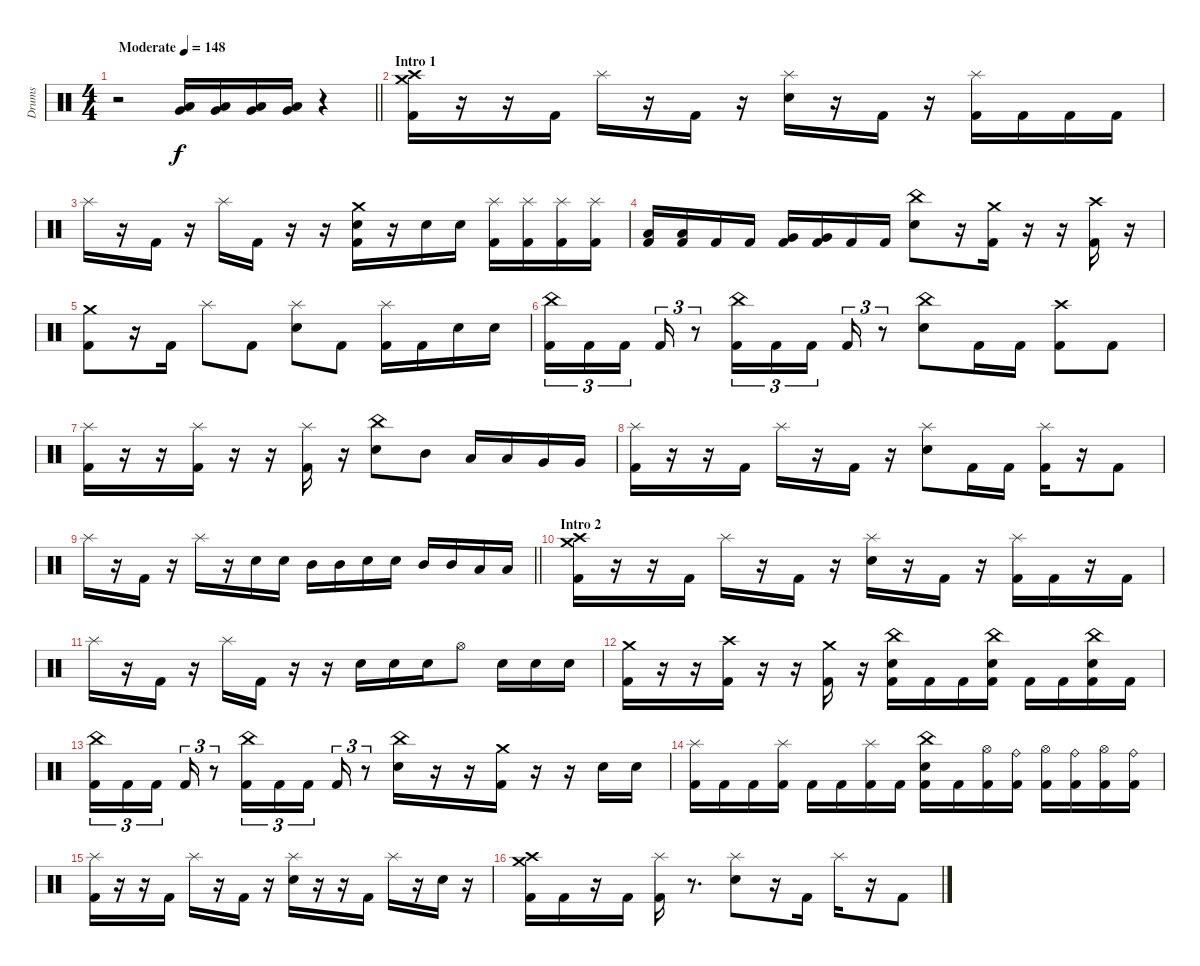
\track ("Drums" "Drums") {instrument percussion}
\staff {score}
\articulation defaults
\ts (4 4)
\tempo (148 "Moderate")
\clef neutral
\barLineRight lightlight
\ks c
r.2{dy f} ("Low Floor Tom (hit)" "Very Low Tom (hit)").16 ("Low Floor Tom (hit)" "Very Low Tom (hit)").16 ("Low Floor Tom (hit)" "Very Low Tom (hit)").16 ("Low Floor Tom (hit)" "Very Low Tom (hit)").16 r.4 |
\section ("" "Intro 1")
("Crash medium (hit)" "Crash high (hit)" "Kick (hit) 2").16 r.16 r.16 "Kick (hit) 2".16 "Splash (hit)".16 r.16 "Kick (hit) 2".16 r.16 ("Splash (hit)" "Electric Snare (hit)").16 r.16 "Kick (hit) 2".16 r.16 ("Splash (hit)" "Kick (hit) 2").16 "Kick (hit) 2".16 "Kick (hit) 2".16 "Kick (hit) 2".16 |
"Splash (hit)".16 r.16 "Kick (hit) 2".16 r.16 "Splash (hit)".16 "Kick (hit) 2".16 r.16 r.16 ("Crash medium (hit)" "Electric Snare (hit)" "Kick (hit) 2").16 r.16 "Electric Snare (hit)".16 "Electric Snare (hit)".16 ("Splash (hit)" "Kick (hit) 2").16 ("Splash (hit)" "Kick (hit) 2").16 ("Splash (hit)" "Kick (hit) 2").16 ("Splash (hit)" "Kick (hit) 2").16 |
("Low Tom (hit)" "Kick (hit) 2").16 ("Low Tom (hit)" "Kick (hit) 2").16 "Kick (hit) 2".16 "Kick (hit) 2".16 ("Very Low Tom (hit)" "Kick (hit) 2").16 ("Very Low Tom (hit)" "Kick (hit) 2").16 "Kick (hit) 2".16 "Kick (hit) 2".16 ("China (hit)" "Electric Snare (hit)").8 r.16 ("Crash medium (hit)" "Kick (hit) 2").16 r.16 r.16 ("Crash high (hit)" "Kick (hit) 2").16 r.16 |
("Crash medium (hit)" "Kick (hit) 2").8 r.16 "Kick (hit) 2".16 "Splash (hit)".8 "Kick (hit) 2".8 ("Splash (hit)" "Electric Snare (hit)").8 "Kick (hit) 2".8 ("Splash (hit)" "Kick (hit) 2").16 "Kick (hit) 2".16 "Electric Snare (hit)".16 "Electric Snare (hit)".16 |
("China (hit)" "Kick (hit) 2").16{tu (3 2)} "Kick (hit) 2".16{tu (3 2)} "Kick (hit) 2".16{tu (3 2) beam splitsecondary} "Kick (hit) 2".16{tu (3 2)} r.8{tu (3 2)} ("China (hit)" "Kick (hit) 2").16{tu (3 2)} "Kick (hit) 2".16{tu (3 2)} "Kick (hit) 2".16{tu (3 2) beam splitsecondary} "Kick (hit) 2".16{tu (3 2)} r.8{tu (3 2)} ("China (hit)" "Electric Snare (hit)").8 "Kick (hit) 2".16 "Kick (hit) 2".16 ("Crash high (hit)" "Kick (hit) 2").8 "Kick (hit) 2".8 |
("Splash (hit)" "Kick (hit) 2").16 r.16 r.16 ("Splash (hit)" "Kick (hit) 2").16 r.16 r.16 ("Splash (hit)" "Kick (hit) 2").16 r.16 ("China (hit)" "Electric Snare (hit)").8 "Mid Tom (hit)".8 "Low Tom (hit)".16 "Low Tom (hit)".16 "Very Low Tom (hit)".16 "Very Low Tom (hit)".16 |
("Splash (hit)" "Kick (hit) 2").16 r.16 r.16 "Kick (hit) 2".16 "Splash (hit)".16 r.16 "Kick (hit) 2".16 r.16 ("Splash (hit)" "Electric Snare (hit)").8 "Kick (hit) 2".16 "Kick (hit) 2".16 ("Splash (hit)" "Kick (hit) 2").16 r.16 "Kick (hit) 2".8 |
\barLineRight lightlight "Splash (hit)".16
r.16 "Kick (hit) 2".16 r.16 "Splash (hit)".16 r.16 "Electric Snare (hit)".16 "Electric Snare (hit)".16 "Mid Tom (hit)".16 "Mid Tom (hit)".16 "Electric Snare (hit)".16 "Electric Snare (hit)".16 "Mid Tom (hit)".16 "Mid Tom (hit)".16 "Low Tom (hit)".16 "Low Tom (hit)".16 |
\section ("" "Intro 2")
("Crash medium (hit)" "Crash high (hit)" "Kick (hit) 2").16 r.16 r.16 "Kick (hit) 2".16 "Splash (hit)".16 r.16 "Kick (hit) 2".16 r.16 ("Splash (hit)" "Electric Snare (hit)").16 r.16 "Kick (hit) 2".16 r.16 ("Splash (hit)" "Kick (hit) 2").16 "Kick (hit) 2".16 r.16 "Kick (hit) 2".16 |
"Splash (hit)".16 r.16 "Kick (hit) 2".16 r.16 "Splash (hit)".16 "Kick (hit) 2".16 r.16 r.16 "Electric Snare (hit)".16 "Electric Snare (hit)".16 "Electric Snare (hit)".16 "Hi-Hat (open)".8 "Electric Snare (hit)".16 "Electric Snare (hit)".16 "Electric Snare (hit)".16 |
("Crash medium (hit)" "Kick (hit) 2").16 r.16 r.16 ("Crash high (hit)" "Kick (hit) 2").16 r.16 r.16 ("Crash medium (hit)" "Kick (hit) 2").16 r.16 ("China (hit)" "Electric Snare (hit)" "Kick (hit) 2").16 "Kick (hit) 2".16 "Kick (hit) 2".16 ("China (hit)" "Electric Snare (hit)" "Kick (hit) 2").16 "Kick (hit) 2".16 "Kick (hit) 2".16 ("China (hit)" "Electric Snare (hit)" "Kick (hit) 2").16 "Kick (hit) 2".16 |
("China (hit)" "Kick (hit) 2").16{tu (3 2)} "Kick (hit) 2".16{tu (3 2)} "Kick (hit) 2".16{tu (3 2) beam splitsecondary} "Kick (hit) 2".16{tu (3 2)} r.8{tu (3 2)} ("China (hit)" "Kick (hit) 2").16{tu (3 2)} "Kick (hit) 2".16{tu (3 2)} "Kick (hit) 2".16{tu (3 2) beam splitsecondary} "Kick (hit) 2".16{tu (3 2)} r.8{tu (3 2)} ("China (hit)" "Electric Snare (hit)").16 r.16 r.16 ("Crash medium (hit)" "Kick (hit) 2").16 r.16 r.16 "Electric Snare (hit)".16 "Electric Snare (hit)".16 |
("Splash (hit)" "Kick (hit) 2").16 "Kick (hit) 2".16 "Kick (hit) 2".16 ("Splash (hit)" "Kick (hit) 2").16 "Kick (hit) 2".16 "Kick (hit) 2".16 ("Splash (hit)" "Kick (hit) 2").16 "Kick (hit) 2".16 ("China (hit)" "Electric Snare (hit)" "Kick (hit) 2").16 "Kick (hit) 2".16 ("Hi-Hat (open)" "Kick (hit) 2").16 ("Ride (bell)" "Kick (hit) 2").16 ("Hi-Hat (open)" "Kick (hit) 2").16 ("Ride (bell)" "Kick (hit) 2").16 ("Hi-Hat (open)" "Kick (hit) 2").16 ("Ride (bell)" "Kick (hit) 2").16 |
("Splash (hit)" "Kick (hit) 2").16 r.16 r.16 "Kick (hit) 2".16 "Splash (hit)".16 r.16 "Kick (hit) 2".16 r.16 ("Splash (hit)" "Electric Snare (hit)").16 r.16 r.16 "Kick (hit) 2".16 "Splash (hit)".16 r.16 "Electric Snare (hit)".16 r.16 |
("Crash medium (hit)" "Crash high (hit)" "Kick (hit) 2").16 "Kick (hit) 2".16 r.16 "Kick (hit) 2".16 ("Splash (hit)" "Kick (hit) 2").16 r.8{d} ("Splash (hit)" "Electric Snare (hit)").8 r.16 "Kick (hit) 2".16 "Splash (hit)".16 r.16 "Kick (hit) 2".8
